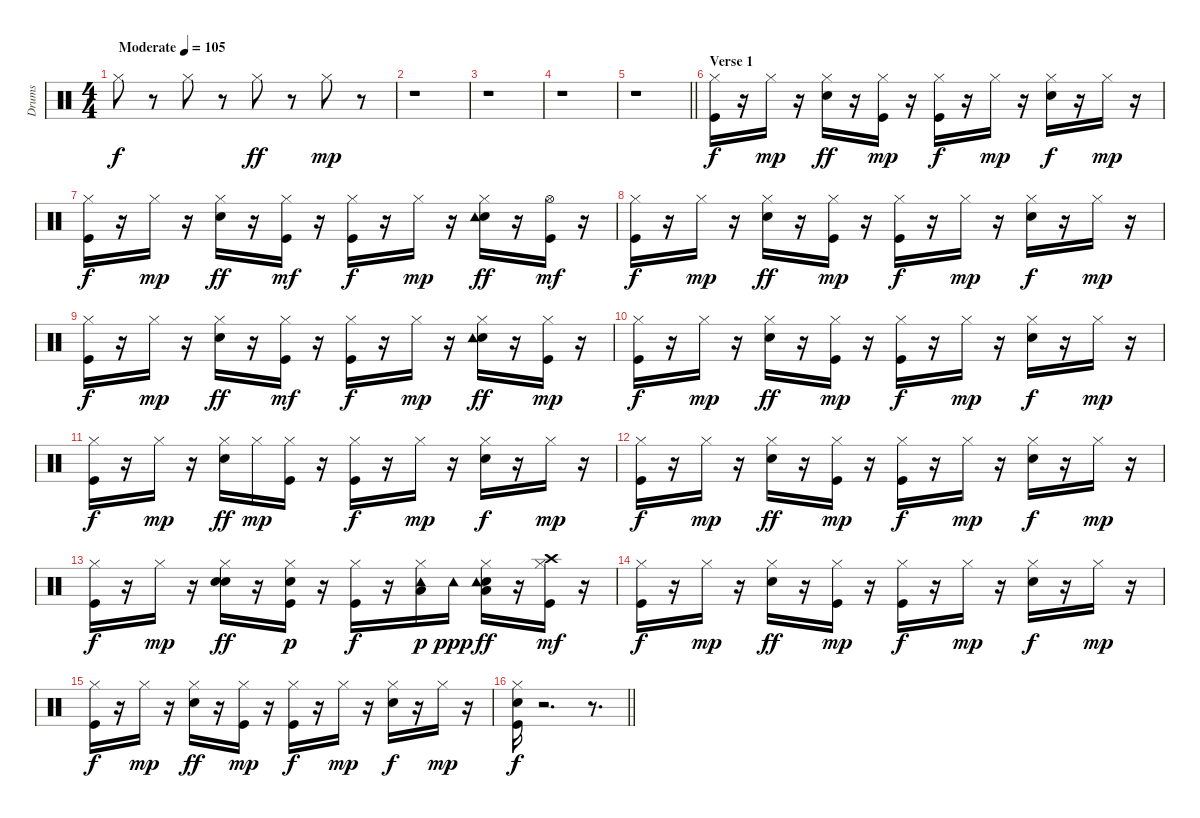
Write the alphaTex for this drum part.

\track ("Drums   " "Drums   ") {instrument percussion}
\staff {score}
\articulation defaults
\ts (4 4)
\tempo (105 "Moderate")
\clef neutral
\ks c "Hi-Hat (closed)".8{dy f}
r.8 "Hi-Hat (closed)".8 r.8 "Hi-Hat (closed)".8{dy ff} r.8 "Hi-Hat (closed)".8{dy mp} r.8 |
r.1 |
r.1 |
r.1 |
\barLineRight lightlight
r.1 |
\section ("" "Verse 1")
("Kick (hit)" "Hi-Hat (closed)").16{dy f} r.16 "Hi-Hat (closed)".16{dy mp} r.16 ("Snare (hit) 2" "Hi-Hat (closed)").16{dy ff} r.16 ("Kick (hit)" "Hi-Hat (closed)").16{dy mp} r.16 ("Kick (hit)" "Hi-Hat (closed)").16{dy f} r.16 "Hi-Hat (closed)".16{dy mp} r.16 ("Snare (hit) 2" "Hi-Hat (closed)").16{dy f} r.16 "Hi-Hat (closed)".16{dy mp} r.16 |
("Kick (hit)" "Hi-Hat (closed)").16{dy f} r.16 "Hi-Hat (closed)".16{dy mp} r.16 ("Snare (hit) 2" "Hi-Hat (closed)").16{dy ff} r.16 ("Kick (hit)" "Hi-Hat (closed)").16{dy mf} r.16 ("Kick (hit)" "Hi-Hat (closed)").16{dy f} r.16 "Hi-Hat (closed)".16{dy mp} r.16 ("Snare (hit) 2" "Hi-Hat (closed)" "Tambourine (hit)").16{dy ff} r.16 ("Kick (hit)" "Hi-Hat (open)").16{dy mf} r.16 |
("Kick (hit)" "Hi-Hat (closed)").16{dy f} r.16 "Hi-Hat (closed)".16{dy mp} r.16 ("Snare (hit) 2" "Hi-Hat (closed)").16{dy ff} r.16 ("Kick (hit)" "Hi-Hat (closed)").16{dy mp} r.16 ("Kick (hit)" "Hi-Hat (closed)").16{dy f} r.16 "Hi-Hat (closed)".16{dy mp} r.16 ("Snare (hit) 2" "Hi-Hat (closed)").16{dy f} r.16 "Hi-Hat (closed)".16{dy mp} r.16 |
("Kick (hit)" "Hi-Hat (closed)").16{dy f} r.16 "Hi-Hat (closed)".16{dy mp} r.16 ("Snare (hit) 2" "Hi-Hat (closed)").16{dy ff} r.16 ("Kick (hit)" "Hi-Hat (closed)").16{dy mf} r.16 ("Kick (hit)" "Hi-Hat (closed)").16{dy f} r.16 "Hi-Hat (closed)".16{dy mp} r.16 ("Snare (hit) 2" "Hi-Hat (closed)" "Tambourine (hit)").16{dy ff} r.16 ("Kick (hit)" "Hi-Hat (closed)").16{dy mp} r.16 |
("Kick (hit)" "Hi-Hat (closed)").16{dy f} r.16 "Hi-Hat (closed)".16{dy mp} r.16 ("Snare (hit) 2" "Hi-Hat (closed)").16{dy ff} r.16 ("Kick (hit)" "Hi-Hat (closed)").16{dy mp} r.16 ("Kick (hit)" "Hi-Hat (closed)").16{dy f} r.16 "Hi-Hat (closed)".16{dy mp} r.16 ("Snare (hit) 2" "Hi-Hat (closed)").16{dy f} r.16 "Hi-Hat (closed)".16{dy mp} r.16 |
("Kick (hit)" "Hi-Hat (closed)").16{dy f} r.16 "Hi-Hat (closed)".16{dy mp} r.16 ("Snare (hit) 2" "Hi-Hat (closed)").16{dy ff} "Hi-Hat (closed)".16{dy mp} ("Kick (hit)" "Hi-Hat (closed)").16 r.16 ("Kick (hit)" "Hi-Hat (closed)").16{dy f} r.16 "Hi-Hat (closed)".16{dy mp} r.16 ("Snare (hit) 2" "Hi-Hat (closed)").16{dy f} r.16 "Hi-Hat (closed)".16{dy mp} r.16 |
("Kick (hit)" "Hi-Hat (closed)").16{dy f} r.16 "Hi-Hat (closed)".16{dy mp} r.16 ("Snare (hit) 2" "Hi-Hat (closed)").16{dy ff} r.16 ("Kick (hit)" "Hi-Hat (closed)").16{dy mp} r.16 ("Kick (hit)" "Hi-Hat (closed)").16{dy f} r.16 "Hi-Hat (closed)".16{dy mp} r.16 ("Snare (hit) 2" "Hi-Hat (closed)").16{dy f} r.16 "Hi-Hat (closed)".16{dy mp} r.16 |
("Kick (hit)" "Hi-Hat (closed)").16{dy f} r.16 "Hi-Hat (closed)".16{dy mp} r.16 ("Snare (hit) 2" "Hi-Hat (closed)" "Hand Clap (hit)").16{dy ff} r.16 ("Kick (hit)" "Hi-Hat (closed)" "Hand Clap (hit)").16{dy p} r.16 ("Kick (hit)" "Hi-Hat (closed)").16{dy f} r.16 ("Hi-Hat (closed)" "Low Tom (hit)" "Tambourine (hit)").16{dy p} "Tambourine (hit)".16{dy ppp} ("Snare (hit) 2" "Hi-Hat (closed)" "Low Floor Tom (hit)" "Tambourine (hit)").16{dy ff} r.16 ("Kick (hit)" "Hi-Hat (closed)" "Crash high (hit)").16{dy mf} r.16 |
("Kick (hit)" "Hi-Hat (closed)").16{dy f} r.16 "Hi-Hat (closed)".16{dy mp} r.16 ("Snare (hit) 2" "Hi-Hat (closed)").16{dy ff} r.16 ("Kick (hit)" "Hi-Hat (closed)").16{dy mp} r.16 ("Kick (hit)" "Hi-Hat (closed)").16{dy f} r.16 "Hi-Hat (closed)".16{dy mp} r.16 ("Snare (hit) 2" "Hi-Hat (closed)").16{dy f} r.16 "Hi-Hat (closed)".16{dy mp} r.16 |
("Kick (hit)" "Hi-Hat (closed)").16{dy f} r.16 "Hi-Hat (closed)".16{dy mp} r.16 ("Snare (hit) 2" "Hi-Hat (closed)").16{dy ff} r.16 ("Kick (hit)" "Hi-Hat (closed)").16{dy mp} r.16 ("Kick (hit)" "Hi-Hat (closed)").16{dy f} r.16 "Hi-Hat (closed)".16{dy mp} r.16 ("Snare (hit) 2" "Hi-Hat (closed)").16{dy f} r.16 "Hi-Hat (closed)".16{dy mp} r.16 |
\barLineRight lightlight
("Kick (hit)" "Hi-Hat (closed)" "Snare (hit) 2").16{dy f} r.2{d} r.8{d}
